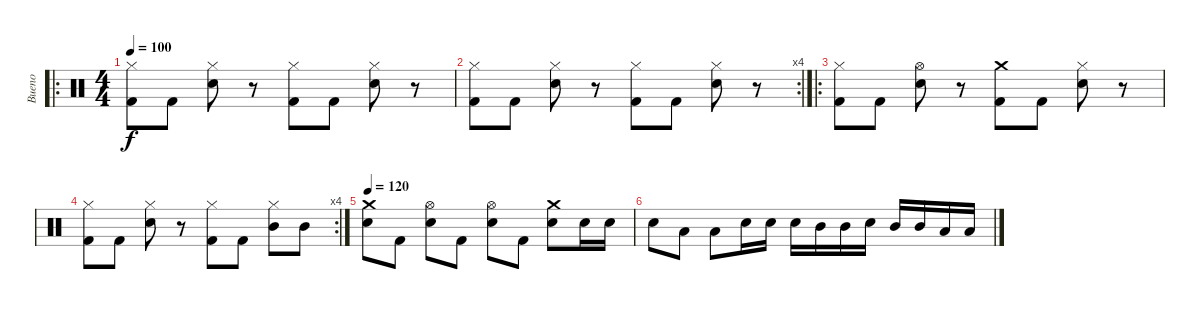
\track ("Bueno" "Bueno") {instrument percussion}
\staff {score}
\articulation defaults
\ro
\ts (4 4)
\tempo 100
\clef neutral
\ks c
("Kick (hit) 2" "Hi-Hat (closed)").8{dy f} "Kick (hit) 2".8 ("Electric Snare (hit)" "Hi-Hat (closed)").8 r.8 ("Kick (hit) 2" "Hi-Hat (closed)").8 "Kick (hit) 2".8 ("Electric Snare (hit)" "Hi-Hat (closed)").8 r.8 |
\rc 4
("Kick (hit) 2" "Hi-Hat (closed)").8 "Kick (hit) 2".8 ("Electric Snare (hit)" "Hi-Hat (closed)").8 r.8 ("Kick (hit) 2" "Hi-Hat (closed)").8 "Kick (hit) 2".8 ("Electric Snare (hit)" "Hi-Hat (closed)").8 r.8 |
\ro
("Kick (hit) 2" "Hi-Hat (closed)").8 "Kick (hit) 2".8 ("Electric Snare (hit)" "Hi-Hat (open)").8 r.8 ("Kick (hit) 2" "Crash medium (hit)").8 "Kick (hit) 2".8 ("Electric Snare (hit)" "Hi-Hat (closed)").8 r.8 |
\rc 4
("Kick (hit) 2" "Hi-Hat (closed)").8 "Kick (hit) 2".8 ("Electric Snare (hit)" "Hi-Hat (closed)").8 r.8 ("Kick (hit) 2" "Hi-Hat (closed)").8 "Kick (hit) 2".8 ("Mid Tom (hit)" "Hi-Hat (closed)").8 "Mid Tom (hit)".8 |
\tempo 120
("Crash medium (hit)" "Electric Snare (hit)").8 "Kick (hit) 2".8 ("Hi-Hat (open)" "Electric Snare (hit)").8 "Kick (hit) 2".8 ("Hi-Hat (open)" "Electric Snare (hit)").8 "Kick (hit) 2".8 ("Electric Snare (hit)" "Crash medium (hit)").8 "Electric Snare (hit)".16 "Electric Snare (hit)".16 |
"Electric Snare (hit)".8 "Low Floor Tom (hit)".8 "Low Floor Tom (hit)".8 "Electric Snare (hit)".16 "Electric Snare (hit)".16 "Electric Snare (hit)".16 "Mid Tom (hit)".16 "Mid Tom (hit)".16 "Electric Snare (hit)".16 "Mid Tom (hit)".16 "Mid Tom (hit)".16 "Low Floor Tom (hit)".16 "Low Floor Tom (hit)".16
